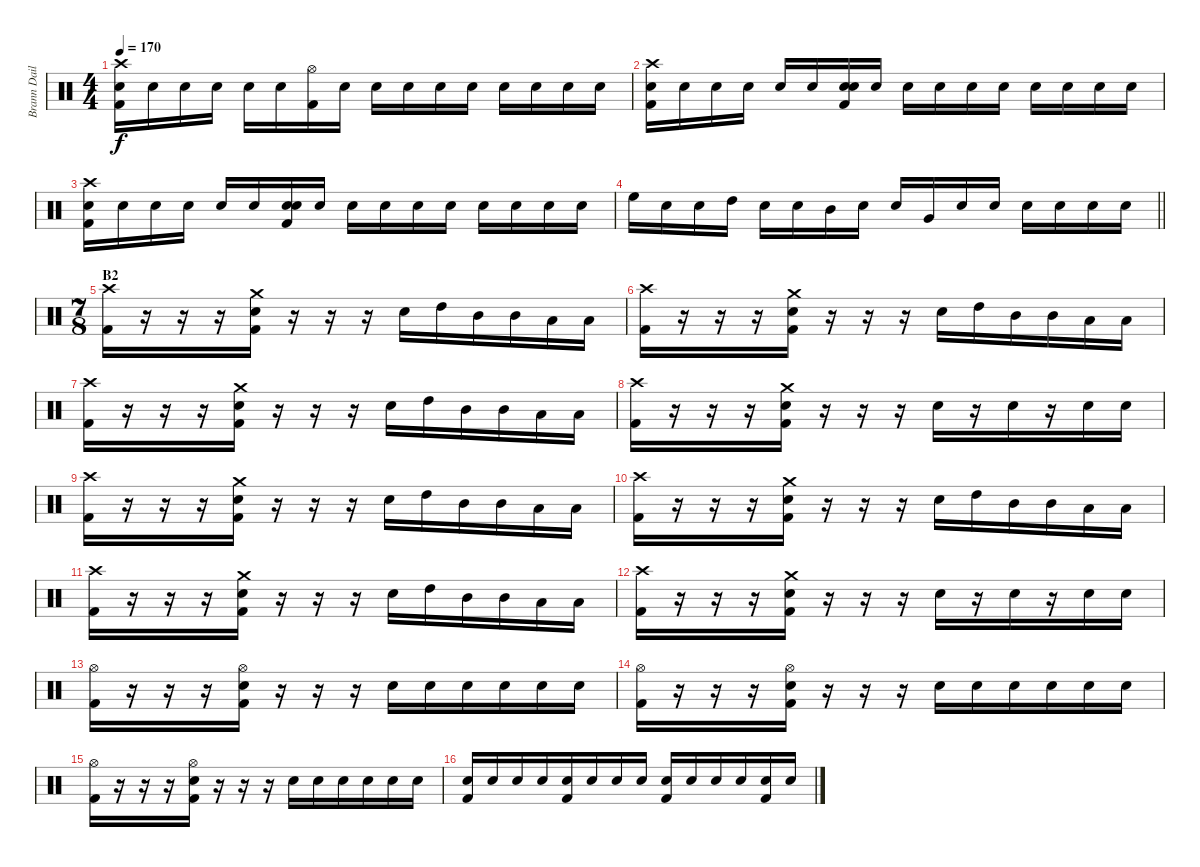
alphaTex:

\track ("Brann Dailor" "Brann Dail") {instrument percussion}
\staff {score}
\articulation defaults
\ts (4 4)
\tempo 170
\clef neutral
\ks c
("Crash high (hit)" "Electric Snare (hit)" "Kick (hit) 2").16{dy f} "Electric Snare (hit)".16 "Electric Snare (hit)".16 "Electric Snare (hit)".16 "Electric Snare (hit)".16 "Electric Snare (hit)".16 ("Hi-Hat (open)" "Kick (hit) 2").16 "Electric Snare (hit)".16 "Electric Snare (hit)".16 "Electric Snare (hit)".16 "Electric Snare (hit)".16 "Electric Snare (hit)".16 "Electric Snare (hit)".16 "Electric Snare (hit)".16 "Electric Snare (hit)".16 "Electric Snare (hit)".16 |
("Crash high (hit)" "Electric Snare (hit)" "Kick (hit) 2").16 "Electric Snare (hit)".16 "Electric Snare (hit)".16 "Electric Snare (hit)".16 "Electric Snare (hit)".16 "Electric Snare (hit)".16 ("Electric Snare (hit)" "Electric Snare (hit)" "Kick (hit) 2").16 "Electric Snare (hit)".16 "Electric Snare (hit)".16 "Electric Snare (hit)".16 "Electric Snare (hit)".16 "Electric Snare (hit)".16 "Electric Snare (hit)".16 "Electric Snare (hit)".16 "Electric Snare (hit)".16 "Electric Snare (hit)".16 |
("Crash high (hit)" "Electric Snare (hit)" "Kick (hit) 2").16 "Electric Snare (hit)".16 "Electric Snare (hit)".16 "Electric Snare (hit)".16 "Electric Snare (hit)".16 "Electric Snare (hit)".16 ("Electric Snare (hit)" "Electric Snare (hit)" "Kick (hit) 2").16 "Electric Snare (hit)".16 "Electric Snare (hit)".16 "Electric Snare (hit)".16 "Electric Snare (hit)".16 "Electric Snare (hit)".16 "Electric Snare (hit)".16 "Electric Snare (hit)".16 "Electric Snare (hit)".16 "Electric Snare (hit)".16 |
\barLineRight lightlight "High Floor Tom (hit)".16 "Electric Snare (hit)".16 "Electric Snare (hit)".16 "High Tom (hit)".16 "Electric Snare (hit)".16 "Electric Snare (hit)".16 "Mid Tom (hit)".16 "Electric Snare (hit)".16 "Electric Snare (hit)".16 "Very Low Tom (hit)".16 "Electric Snare (hit)".16 "Electric Snare (hit)".16 "Electric Snare (hit)".16 "Electric Snare (hit)".16 "Electric Snare (hit)".16 "Electric Snare (hit)".16
|
\ts (7 8)
\section ("" "B2")
("Crash high (hit)" "Kick (hit) 2").16 r.16 r.16 r.16 ("Crash medium (hit)" "Electric Snare (hit)" "Kick (hit) 2").16 r.16 r.16 r.16 "Electric Snare (hit)".16 "High Tom (hit)".16 "Mid Tom (hit)".16 "Mid Tom (hit)".16 "Low Tom (hit)".16 "Low Tom (hit)".16 |
("Crash high (hit)" "Kick (hit) 2").16 r.16 r.16 r.16 ("Crash medium (hit)" "Electric Snare (hit)" "Kick (hit) 2").16 r.16 r.16 r.16 "Electric Snare (hit)".16 "High Tom (hit)".16 "Mid Tom (hit)".16 "Mid Tom (hit)".16 "Low Tom (hit)".16 "Low Tom (hit)".16 |
("Crash high (hit)" "Kick (hit) 2").16 r.16 r.16 r.16 ("Crash medium (hit)" "Electric Snare (hit)" "Kick (hit) 2").16 r.16 r.16 r.16 "Electric Snare (hit)".16 "High Tom (hit)".16 "Mid Tom (hit)".16 "Mid Tom (hit)".16 "Low Tom (hit)".16 "Low Tom (hit)".16 |
("Crash high (hit)" "Kick (hit) 2").16 r.16 r.16 r.16 ("Crash medium (hit)" "Electric Snare (hit)" "Kick (hit) 2").16 r.16 r.16 r.16 "Electric Snare (hit)".16 r.16 "Electric Snare (hit)".16 r.16 "Electric Snare (hit)".16 "Electric Snare (hit)".16 |
("Crash high (hit)" "Kick (hit) 2").16 r.16 r.16 r.16 ("Crash medium (hit)" "Electric Snare (hit)" "Kick (hit) 2").16 r.16 r.16 r.16 "Electric Snare (hit)".16 "High Tom (hit)".16 "Mid Tom (hit)".16 "Mid Tom (hit)".16 "Low Tom (hit)".16 "Low Tom (hit)".16 |
("Crash high (hit)" "Kick (hit) 2").16 r.16 r.16 r.16 ("Crash medium (hit)" "Electric Snare (hit)" "Kick (hit) 2").16 r.16 r.16 r.16 "Electric Snare (hit)".16 "High Tom (hit)".16 "Mid Tom (hit)".16 "Mid Tom (hit)".16 "Low Tom (hit)".16 "Low Tom (hit)".16 |
("Crash high (hit)" "Kick (hit) 2").16 r.16 r.16 r.16 ("Crash medium (hit)" "Electric Snare (hit)" "Kick (hit) 2").16 r.16 r.16 r.16 "Electric Snare (hit)".16 "High Tom (hit)".16 "Mid Tom (hit)".16 "Mid Tom (hit)".16 "Low Tom (hit)".16 "Low Tom (hit)".16 |
("Crash high (hit)" "Kick (hit) 2").16 r.16 r.16 r.16 ("Crash medium (hit)" "Electric Snare (hit)" "Kick (hit) 2").16 r.16 r.16 r.16 "Electric Snare (hit)".16 r.16 "Electric Snare (hit)".16 r.16 "Electric Snare (hit)".16 "Electric Snare (hit)".16 |
("Hi-Hat (open)" "Kick (hit) 2").16 r.16 r.16 r.16 ("Hi-Hat (open)" "Electric Snare (hit)" "Kick (hit) 2").16 r.16 r.16 r.16 "Electric Snare (hit)".16 "Electric Snare (hit)".16 "Electric Snare (hit)".16 "Electric Snare (hit)".16 "Electric Snare (hit)".16 "Electric Snare (hit)".16 |
("Hi-Hat (open)" "Kick (hit) 2").16 r.16 r.16 r.16 ("Hi-Hat (open)" "Electric Snare (hit)" "Kick (hit) 2").16 r.16 r.16 r.16 "Electric Snare (hit)".16 "Electric Snare (hit)".16 "Electric Snare (hit)".16 "Electric Snare (hit)".16 "Electric Snare (hit)".16 "Electric Snare (hit)".16 |
("Hi-Hat (open)" "Kick (hit) 2").16 r.16 r.16 r.16 ("Hi-Hat (open)" "Electric Snare (hit)" "Kick (hit) 2").16 r.16 r.16 r.16 "Electric Snare (hit)".16 "Electric Snare (hit)".16 "Electric Snare (hit)".16 "Electric Snare (hit)".16 "Electric Snare (hit)".16 "Electric Snare (hit)".16 |
("Electric Snare (hit)" "Kick (hit) 2").16 "Electric Snare (hit)".16 "Electric Snare (hit)".16 "Electric Snare (hit)".16 ("Electric Snare (hit)" "Kick (hit) 2").16 "Electric Snare (hit)".16 "Electric Snare (hit)".16 "Electric Snare (hit)".16 ("Electric Snare (hit)" "Kick (hit) 2").16 "Electric Snare (hit)".16 "Electric Snare (hit)".16 "Electric Snare (hit)".16 ("Electric Snare (hit)" "Kick (hit) 2").16 "Electric Snare (hit)".16
